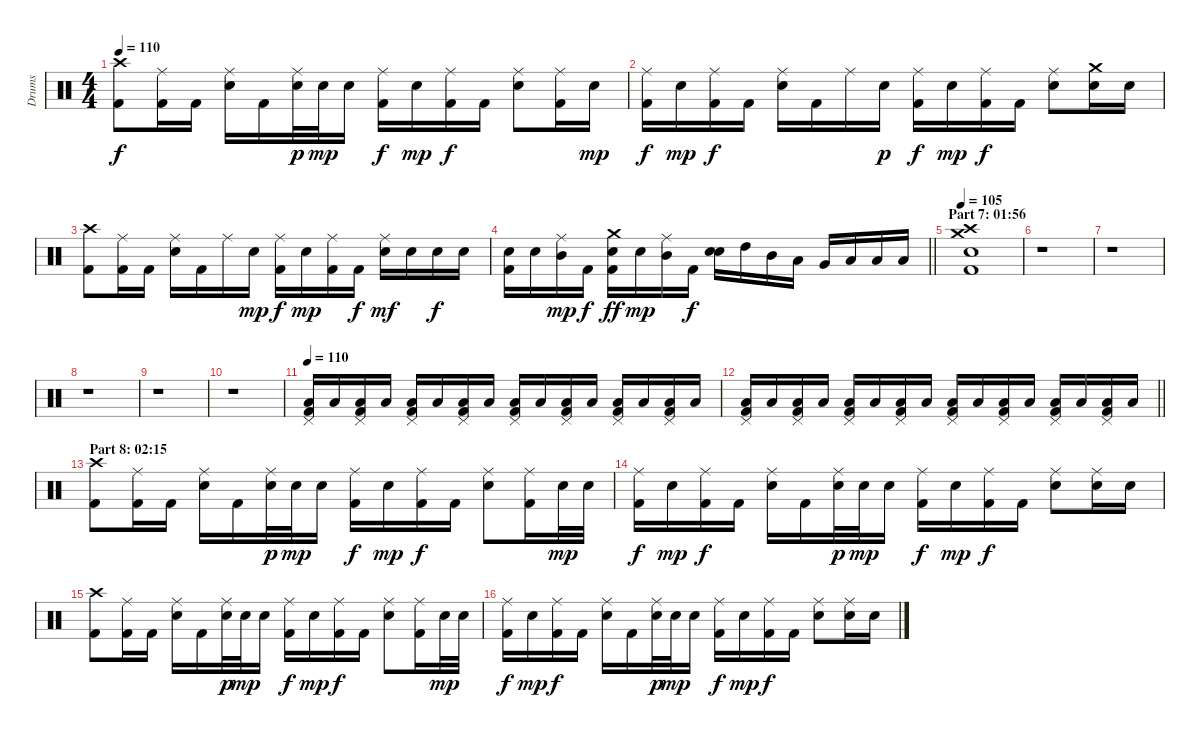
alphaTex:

\track ("Drums" "Drums") {instrument percussion}
\staff {score}
\articulation defaults
\ts (4 4)
\tempo 110
\clef neutral
\ks c
("Crash high (hit)" "Kick (hit) 2").8{dy f} ("Ride (middle)" "Kick (hit) 2").16 "Kick (hit) 2".16 ("Ride (middle)" "Electric Snare (hit)").16 "Kick (hit) 2".16 ("Ride (middle)" "Electric Snare (hit)").32{dy p} "Electric Snare (hit)".32{dy mp} "Electric Snare (hit)".16 ("Ride (middle)" "Kick (hit) 2").16{dy f} "Electric Snare (hit)".16{dy mp} ("Ride (middle)" "Kick (hit) 2").16{dy f} "Kick (hit) 2".16 ("Ride (middle)" "Electric Snare (hit)").8 ("Ride (middle)" "Kick (hit) 2").16 "Electric Snare (hit)".16{dy mp} |
("Ride (middle)" "Kick (hit) 2").16{dy f} "Electric Snare (hit)".16{dy mp} ("Ride (middle)" "Kick (hit) 2").16{dy f} "Kick (hit) 2".16 ("Ride (middle)" "Electric Snare (hit)").16 "Kick (hit) 2".16 "Ride (middle)".16 "Electric Snare (hit)".16{dy p} ("Ride (middle)" "Kick (hit) 2").16{dy f} "Electric Snare (hit)".16{dy mp} ("Ride (middle)" "Kick (hit) 2").16{dy f} "Kick (hit) 2".16 ("Ride (middle)" "Electric Snare (hit)").8 ("Crash medium (hit)" "Electric Snare (hit)").16 "Electric Snare (hit)".16 |
("Crash high (hit)" "Kick (hit) 2").8 ("Ride (middle)" "Kick (hit) 2").16 "Kick (hit) 2".16 ("Ride (middle)" "Electric Snare (hit)").16 "Kick (hit) 2".16 "Ride (middle)".16 "Electric Snare (hit)".16{dy mp} ("Ride (middle)" "Kick (hit) 2").16{dy f} "Electric Snare (hit)".16{dy mp} ("Ride (middle)" "Kick (hit) 2").16 "Kick (hit) 2".16{dy f} ("Ride (middle)" "Electric Snare (hit)").16{dy mf} "Electric Snare (hit)".16 "Electric Snare (hit)".16{dy f} "Electric Snare (hit)".16 |
\barLineRight lightlight
("Electric Snare (hit)" "Kick (hit) 2").16 "Electric Snare (hit)".16 ("Ride (middle)" "Mid Tom (hit)").16{dy mp} "Kick (hit) 2".16{dy f} ("Crash medium (hit)" "Electric Snare (hit)" "Kick (hit) 2").16{dy ff} "Electric Snare (hit)".16{dy mp} ("Ride (middle)" "Mid Tom (hit)").16 "Kick (hit) 2".16{dy f} ("Electric Snare (hit)" "Electric Snare (hit)").16{bu 120} "High Tom (hit)".16 "Mid Tom (hit)".16 "Low Tom (hit)".16 "Very Low Tom (hit)".16 "Low Floor Tom (hit)".16 "Low Floor Tom (hit)".16 "Low Floor Tom (hit)".16 |
\section ("" "Part 7: 01:56")
\tempo 105
("Crash medium (hit)" "Crash high (hit)" "Electric Snare (hit)" "Kick (hit) 2").1 |
r.1{volume 0} |
r.1 |
r.1 |
r.1 |
r.1 |
\tempo 110
("Pedal Hi-Hat (hit)" "Low Tom (hit)" "Kick (hit) 2").16{volume 13} "Low Tom (hit)".16 ("Pedal Hi-Hat (hit)" "Low Tom (hit)" "Kick (hit) 2").16 "Low Tom (hit)".16 ("Pedal Hi-Hat (hit)" "Low Tom (hit)" "Kick (hit) 2").16 "Low Tom (hit)".16 ("Pedal Hi-Hat (hit)" "Low Tom (hit)" "Kick (hit) 2").16 "Low Tom (hit)".16 ("Pedal Hi-Hat (hit)" "Low Tom (hit)" "Kick (hit) 2").16 "Low Tom (hit)".16 ("Pedal Hi-Hat (hit)" "Low Tom (hit)" "Kick (hit) 2").16 "Low Tom (hit)".16 ("Pedal Hi-Hat (hit)" "Low Tom (hit)" "Kick (hit) 2").16 "Low Tom (hit)".16 ("Pedal Hi-Hat (hit)" "Low Tom (hit)" "Kick (hit) 2").16 "Low Tom (hit)".16 |
\barLineRight lightlight
("Pedal Hi-Hat (hit)" "Low Tom (hit)" "Kick (hit) 2").16 "Low Tom (hit)".16 ("Pedal Hi-Hat (hit)" "Low Tom (hit)" "Kick (hit) 2").16 "Low Tom (hit)".16 ("Pedal Hi-Hat (hit)" "Low Tom (hit)" "Kick (hit) 2").16 "Low Tom (hit)".16 ("Pedal Hi-Hat (hit)" "Low Tom (hit)" "Kick (hit) 2").16 "Low Tom (hit)".16 ("Pedal Hi-Hat (hit)" "Low Tom (hit)" "Kick (hit) 2").16 "Low Tom (hit)".16 ("Pedal Hi-Hat (hit)" "Low Tom (hit)" "Kick (hit) 2").16 "Low Tom (hit)".16 ("Pedal Hi-Hat (hit)" "Low Tom (hit)" "Kick (hit) 2").16 "Low Tom (hit)".16 ("Pedal Hi-Hat (hit)" "Low Tom (hit)" "Kick (hit) 2").16 "Low Tom (hit)".16 |
\section ("" "Part 8: 02:15")
("Crash high (hit)" "Kick (hit) 2").8 ("Ride (middle)" "Kick (hit) 2").16 "Kick (hit) 2".16 ("Ride (middle)" "Electric Snare (hit)").16 "Kick (hit) 2".16 ("Ride (middle)" "Electric Snare (hit)").32{dy p} "Electric Snare (hit)".32{dy mp} "Electric Snare (hit)".16 ("Ride (middle)" "Kick (hit) 2").16{dy f} "Electric Snare (hit)".16{dy mp} ("Ride (middle)" "Kick (hit) 2").16{dy f} "Kick (hit) 2".16 ("Ride (middle)" "Electric Snare (hit)").8 ("Ride (middle)" "Kick (hit) 2").16 "Electric Snare (hit)".32{dy mp} "Electric Snare (hit)".32 |
("Ride (middle)" "Kick (hit) 2").16{dy f} "Electric Snare (hit)".16{dy mp} ("Ride (middle)" "Kick (hit) 2").16{dy f} "Kick (hit) 2".16 ("Ride (middle)" "Electric Snare (hit)").16 "Kick (hit) 2".16 ("Ride (middle)" "Electric Snare (hit)").32{dy p} "Electric Snare (hit)".32{dy mp} "Electric Snare (hit)".16 ("Ride (middle)" "Kick (hit) 2").16{dy f} "Electric Snare (hit)".16{dy mp} ("Ride (middle)" "Kick (hit) 2").16{dy f} "Kick (hit) 2".16 ("Ride (middle)" "Electric Snare (hit)").8 ("Ride (middle)" "Electric Snare (hit)").16 "Electric Snare (hit)".16 |
("Crash high (hit)" "Kick (hit) 2").8 ("Ride (middle)" "Kick (hit) 2").16 "Kick (hit) 2".16 ("Ride (middle)" "Electric Snare (hit)").16 "Kick (hit) 2".16 ("Ride (middle)" "Electric Snare (hit)").32{dy p} "Electric Snare (hit)".32{dy mp} "Electric Snare (hit)".16 ("Ride (middle)" "Kick (hit) 2").16{dy f} "Electric Snare (hit)".16{dy mp} ("Ride (middle)" "Kick (hit) 2").16{dy f} "Kick (hit) 2".16 ("Ride (middle)" "Electric Snare (hit)").8 ("Ride (middle)" "Kick (hit) 2").16 "Electric Snare (hit)".32{dy mp} "Electric Snare (hit)".32 |
("Ride (middle)" "Kick (hit) 2").16{dy f} "Electric Snare (hit)".16{dy mp} ("Ride (middle)" "Kick (hit) 2").16{dy f} "Kick (hit) 2".16 ("Ride (middle)" "Electric Snare (hit)").16 "Kick (hit) 2".16 ("Ride (middle)" "Electric Snare (hit)").32{dy p} "Electric Snare (hit)".32{dy mp} "Electric Snare (hit)".16 ("Ride (middle)" "Kick (hit) 2").16{dy f} "Electric Snare (hit)".16{dy mp} ("Ride (middle)" "Kick (hit) 2").16{dy f} "Kick (hit) 2".16 ("Ride (middle)" "Electric Snare (hit)").8 ("Ride (middle)" "Electric Snare (hit)").16 "Electric Snare (hit)".16
